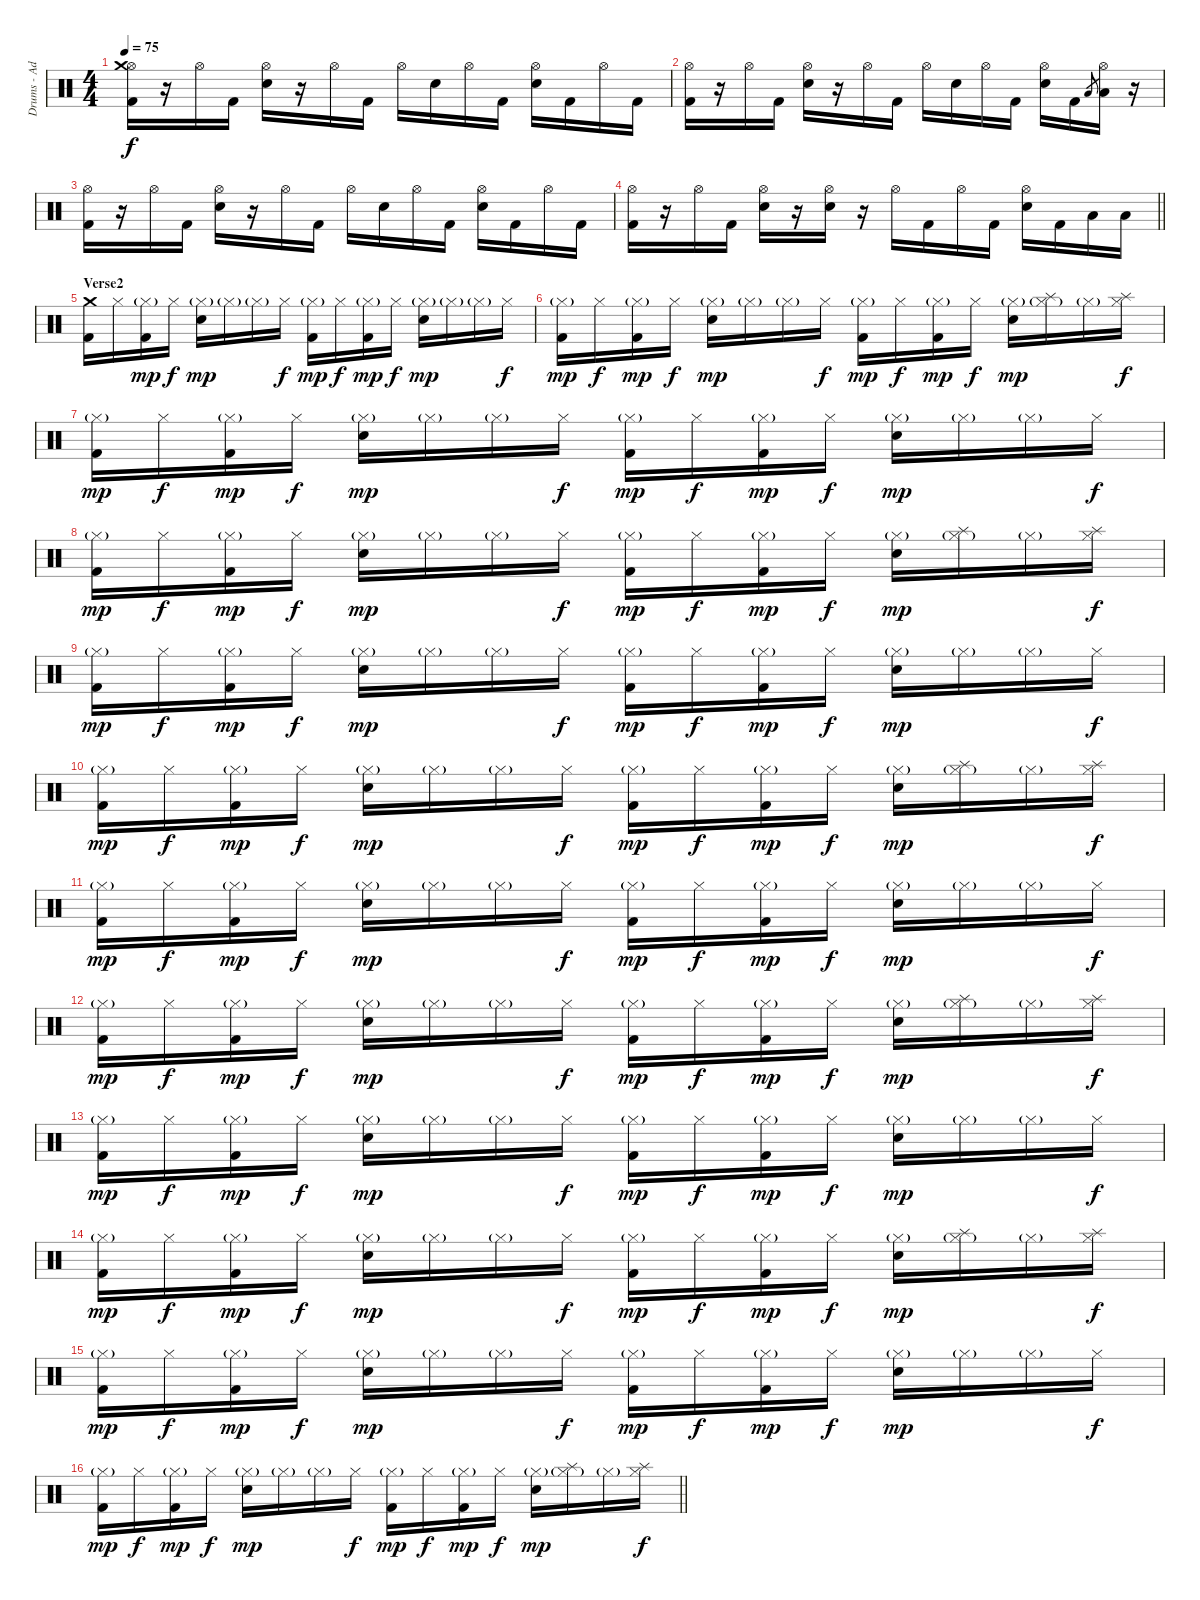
\track ("Drums - Adrian Robinson" "Drums - Ad") {instrument percussion}
\staff {score}
\articulation defaults
\ts (4 4)
\tempo 75
\clef neutral
\ks c
("Hi-Hat (open)" "Crash medium (hit)" "Kick (hit) 2").16{dy f} r.16 "Hi-Hat (open)".16 "Kick (hit) 2".16 ("Hi-Hat (open)" "Electric Snare (hit)").16 r.16 "Hi-Hat (open)".16 "Kick (hit) 2".16 "Hi-Hat (open)".16 "Electric Snare (hit)".16 "Hi-Hat (open)".16 "Kick (hit) 2".16 ("Hi-Hat (open)" "Electric Snare (hit)").16 "Kick (hit) 2".16 "Hi-Hat (open)".16 "Kick (hit) 2".16 |
("Hi-Hat (open)" "Kick (hit) 2").16 r.16 "Hi-Hat (open)".16 "Kick (hit) 2".16 ("Hi-Hat (open)" "Electric Snare (hit)").16 r.16 "Hi-Hat (open)".16 "Kick (hit) 2".16 "Hi-Hat (open)".16 "Electric Snare (hit)".16 "Hi-Hat (open)".16 "Kick (hit) 2".16 ("Hi-Hat (open)" "Electric Snare (hit)").16 "Kick (hit) 2".16 "Low Floor Tom (hit)".8{gr} ("Hi-Hat (open)" "Low Floor Tom (hit)").16 r.16 |
("Hi-Hat (open)" "Kick (hit) 2").16 r.16 "Hi-Hat (open)".16 "Kick (hit) 2".16 ("Hi-Hat (open)" "Electric Snare (hit)").16 r.16 "Hi-Hat (open)".16 "Kick (hit) 2".16 "Hi-Hat (open)".16 "Electric Snare (hit)".16 "Hi-Hat (open)".16 "Kick (hit) 2".16 ("Hi-Hat (open)" "Electric Snare (hit)").16 "Kick (hit) 2".16 "Hi-Hat (open)".16 "Kick (hit) 2".16 |
\barLineRight lightlight
("Hi-Hat (open)" "Kick (hit) 2").16 r.16 "Hi-Hat (open)".16 "Kick (hit) 2".16 ("Hi-Hat (open)" "Electric Snare (hit)").16 r.16 ("Hi-Hat (open)" "Electric Snare (hit)").16 r.16 "Hi-Hat (open)".16 "Kick (hit) 2".16 "Hi-Hat (open)".16 "Kick (hit) 2".16 ("Hi-Hat (open)" "Electric Snare (hit)").16 "Kick (hit) 2".16 "Low Floor Tom (hit)".16 "Low Floor Tom (hit)".16 |
\section ("" "Verse2")
("Crash medium (hit)" "Kick (hit) 2").16 "Hi-Hat (closed)".16 ("Hi-Hat (closed)"{g} "Kick (hit) 2").16{dy mp} "Hi-Hat (closed)".16{dy f} ("Hi-Hat (closed)"{g} "Electric Snare (hit)").16{dy mp} "Hi-Hat (closed)"{g}.16 "Hi-Hat (closed)"{g}.16 "Hi-Hat (closed)".16{dy f} ("Hi-Hat (closed)"{g} "Kick (hit) 2").16{dy mp} "Hi-Hat (closed)".16{dy f} ("Hi-Hat (closed)"{g} "Kick (hit) 2").16{dy mp} "Hi-Hat (closed)".16{dy f} ("Hi-Hat (closed)"{g} "Electric Snare (hit)").16{dy mp} "Hi-Hat (closed)"{g}.16 "Hi-Hat (closed)"{g}.16 "Hi-Hat (closed)".16{dy f} |
("Hi-Hat (closed)"{g} "Kick (hit) 2").16{dy mp} "Hi-Hat (closed)".16{dy f} ("Hi-Hat (closed)"{g} "Kick (hit) 2").16{dy mp} "Hi-Hat (closed)".16{dy f} ("Hi-Hat (closed)"{g} "Electric Snare (hit)").16{dy mp} "Hi-Hat (closed)"{g}.16 "Hi-Hat (closed)"{g}.16 "Hi-Hat (closed)".16{dy f} ("Hi-Hat (closed)"{g} "Kick (hit) 2").16{dy mp} "Hi-Hat (closed)".16{dy f} ("Hi-Hat (closed)"{g} "Kick (hit) 2").16{dy mp} "Hi-Hat (closed)".16{dy f} ("Hi-Hat (closed)"{g} "Electric Snare (hit)").16{dy mp} ("Hi-Hat (closed)"{g} "Splash (hit)").16 "Hi-Hat (closed)"{g}.16 ("Hi-Hat (closed)" "Splash (hit)").16{dy f} |
("Hi-Hat (closed)"{g} "Kick (hit) 2").16{dy mp} "Hi-Hat (closed)".16{dy f} ("Hi-Hat (closed)"{g} "Kick (hit) 2").16{dy mp} "Hi-Hat (closed)".16{dy f} ("Hi-Hat (closed)"{g} "Electric Snare (hit)").16{dy mp} "Hi-Hat (closed)"{g}.16 "Hi-Hat (closed)"{g}.16 "Hi-Hat (closed)".16{dy f} ("Hi-Hat (closed)"{g} "Kick (hit) 2").16{dy mp} "Hi-Hat (closed)".16{dy f} ("Hi-Hat (closed)"{g} "Kick (hit) 2").16{dy mp} "Hi-Hat (closed)".16{dy f} ("Hi-Hat (closed)"{g} "Electric Snare (hit)").16{dy mp} "Hi-Hat (closed)"{g}.16 "Hi-Hat (closed)"{g}.16 "Hi-Hat (closed)".16{dy f} |
("Hi-Hat (closed)"{g} "Kick (hit) 2").16{dy mp} "Hi-Hat (closed)".16{dy f} ("Hi-Hat (closed)"{g} "Kick (hit) 2").16{dy mp} "Hi-Hat (closed)".16{dy f} ("Hi-Hat (closed)"{g} "Electric Snare (hit)").16{dy mp} "Hi-Hat (closed)"{g}.16 "Hi-Hat (closed)"{g}.16 "Hi-Hat (closed)".16{dy f} ("Hi-Hat (closed)"{g} "Kick (hit) 2").16{dy mp} "Hi-Hat (closed)".16{dy f} ("Hi-Hat (closed)"{g} "Kick (hit) 2").16{dy mp} "Hi-Hat (closed)".16{dy f} ("Hi-Hat (closed)"{g} "Electric Snare (hit)").16{dy mp} ("Hi-Hat (closed)"{g} "Splash (hit)").16 "Hi-Hat (closed)"{g}.16 ("Hi-Hat (closed)" "Splash (hit)").16{dy f} |
("Hi-Hat (closed)"{g} "Kick (hit) 2").16{dy mp} "Hi-Hat (closed)".16{dy f} ("Hi-Hat (closed)"{g} "Kick (hit) 2").16{dy mp} "Hi-Hat (closed)".16{dy f} ("Hi-Hat (closed)"{g} "Electric Snare (hit)").16{dy mp} "Hi-Hat (closed)"{g}.16 "Hi-Hat (closed)"{g}.16 "Hi-Hat (closed)".16{dy f} ("Hi-Hat (closed)"{g} "Kick (hit) 2").16{dy mp} "Hi-Hat (closed)".16{dy f} ("Hi-Hat (closed)"{g} "Kick (hit) 2").16{dy mp} "Hi-Hat (closed)".16{dy f} ("Hi-Hat (closed)"{g} "Electric Snare (hit)").16{dy mp} "Hi-Hat (closed)"{g}.16 "Hi-Hat (closed)"{g}.16 "Hi-Hat (closed)".16{dy f} |
("Hi-Hat (closed)"{g} "Kick (hit) 2").16{dy mp} "Hi-Hat (closed)".16{dy f} ("Hi-Hat (closed)"{g} "Kick (hit) 2").16{dy mp} "Hi-Hat (closed)".16{dy f} ("Hi-Hat (closed)"{g} "Electric Snare (hit)").16{dy mp} "Hi-Hat (closed)"{g}.16 "Hi-Hat (closed)"{g}.16 "Hi-Hat (closed)".16{dy f} ("Hi-Hat (closed)"{g} "Kick (hit) 2").16{dy mp} "Hi-Hat (closed)".16{dy f} ("Hi-Hat (closed)"{g} "Kick (hit) 2").16{dy mp} "Hi-Hat (closed)".16{dy f} ("Hi-Hat (closed)"{g} "Electric Snare (hit)").16{dy mp} ("Hi-Hat (closed)"{g} "Splash (hit)").16 "Hi-Hat (closed)"{g}.16 ("Hi-Hat (closed)" "Splash (hit)").16{dy f} |
("Hi-Hat (closed)"{g} "Kick (hit) 2").16{dy mp} "Hi-Hat (closed)".16{dy f} ("Hi-Hat (closed)"{g} "Kick (hit) 2").16{dy mp} "Hi-Hat (closed)".16{dy f} ("Hi-Hat (closed)"{g} "Electric Snare (hit)").16{dy mp} "Hi-Hat (closed)"{g}.16 "Hi-Hat (closed)"{g}.16 "Hi-Hat (closed)".16{dy f} ("Hi-Hat (closed)"{g} "Kick (hit) 2").16{dy mp} "Hi-Hat (closed)".16{dy f} ("Hi-Hat (closed)"{g} "Kick (hit) 2").16{dy mp} "Hi-Hat (closed)".16{dy f} ("Hi-Hat (closed)"{g} "Electric Snare (hit)").16{dy mp} "Hi-Hat (closed)"{g}.16 "Hi-Hat (closed)"{g}.16 "Hi-Hat (closed)".16{dy f} |
("Hi-Hat (closed)"{g} "Kick (hit) 2").16{dy mp} "Hi-Hat (closed)".16{dy f} ("Hi-Hat (closed)"{g} "Kick (hit) 2").16{dy mp} "Hi-Hat (closed)".16{dy f} ("Hi-Hat (closed)"{g} "Electric Snare (hit)").16{dy mp} "Hi-Hat (closed)"{g}.16 "Hi-Hat (closed)"{g}.16 "Hi-Hat (closed)".16{dy f} ("Hi-Hat (closed)"{g} "Kick (hit) 2").16{dy mp} "Hi-Hat (closed)".16{dy f} ("Hi-Hat (closed)"{g} "Kick (hit) 2").16{dy mp} "Hi-Hat (closed)".16{dy f} ("Hi-Hat (closed)"{g} "Electric Snare (hit)").16{dy mp} ("Hi-Hat (closed)"{g} "Splash (hit)").16 "Hi-Hat (closed)"{g}.16 ("Hi-Hat (closed)" "Splash (hit)").16{dy f} |
("Hi-Hat (closed)"{g} "Kick (hit) 2").16{dy mp} "Hi-Hat (closed)".16{dy f} ("Hi-Hat (closed)"{g} "Kick (hit) 2").16{dy mp} "Hi-Hat (closed)".16{dy f} ("Hi-Hat (closed)"{g} "Electric Snare (hit)").16{dy mp} "Hi-Hat (closed)"{g}.16 "Hi-Hat (closed)"{g}.16 "Hi-Hat (closed)".16{dy f} ("Hi-Hat (closed)"{g} "Kick (hit) 2").16{dy mp} "Hi-Hat (closed)".16{dy f} ("Hi-Hat (closed)"{g} "Kick (hit) 2").16{dy mp} "Hi-Hat (closed)".16{dy f} ("Hi-Hat (closed)"{g} "Electric Snare (hit)").16{dy mp} "Hi-Hat (closed)"{g}.16 "Hi-Hat (closed)"{g}.16 "Hi-Hat (closed)".16{dy f} |
("Hi-Hat (closed)"{g} "Kick (hit) 2").16{dy mp} "Hi-Hat (closed)".16{dy f} ("Hi-Hat (closed)"{g} "Kick (hit) 2").16{dy mp} "Hi-Hat (closed)".16{dy f} ("Hi-Hat (closed)"{g} "Electric Snare (hit)").16{dy mp} "Hi-Hat (closed)"{g}.16 "Hi-Hat (closed)"{g}.16 "Hi-Hat (closed)".16{dy f} ("Hi-Hat (closed)"{g} "Kick (hit) 2").16{dy mp} "Hi-Hat (closed)".16{dy f} ("Hi-Hat (closed)"{g} "Kick (hit) 2").16{dy mp} "Hi-Hat (closed)".16{dy f} ("Hi-Hat (closed)"{g} "Electric Snare (hit)").16{dy mp} ("Hi-Hat (closed)"{g} "Splash (hit)").16 "Hi-Hat (closed)"{g}.16 ("Hi-Hat (closed)" "Splash (hit)").16{dy f} |
("Hi-Hat (closed)"{g} "Kick (hit) 2").16{dy mp} "Hi-Hat (closed)".16{dy f} ("Hi-Hat (closed)"{g} "Kick (hit) 2").16{dy mp} "Hi-Hat (closed)".16{dy f} ("Hi-Hat (closed)"{g} "Electric Snare (hit)").16{dy mp} "Hi-Hat (closed)"{g}.16 "Hi-Hat (closed)"{g}.16 "Hi-Hat (closed)".16{dy f} ("Hi-Hat (closed)"{g} "Kick (hit) 2").16{dy mp} "Hi-Hat (closed)".16{dy f} ("Hi-Hat (closed)"{g} "Kick (hit) 2").16{dy mp} "Hi-Hat (closed)".16{dy f} ("Hi-Hat (closed)"{g} "Electric Snare (hit)").16{dy mp} "Hi-Hat (closed)"{g}.16 "Hi-Hat (closed)"{g}.16 "Hi-Hat (closed)".16{dy f} |
\barLineRight lightlight
("Hi-Hat (closed)"{g} "Kick (hit) 2").16{dy mp} "Hi-Hat (closed)".16{dy f} ("Hi-Hat (closed)"{g} "Kick (hit) 2").16{dy mp} "Hi-Hat (closed)".16{dy f} ("Hi-Hat (closed)"{g} "Electric Snare (hit)").16{dy mp} "Hi-Hat (closed)"{g}.16 "Hi-Hat (closed)"{g}.16 "Hi-Hat (closed)".16{dy f} ("Hi-Hat (closed)"{g} "Kick (hit) 2").16{dy mp} "Hi-Hat (closed)".16{dy f} ("Hi-Hat (closed)"{g} "Kick (hit) 2").16{dy mp} "Hi-Hat (closed)".16{dy f} ("Hi-Hat (closed)"{g} "Electric Snare (hit)").16{dy mp} ("Hi-Hat (closed)"{g} "Splash (hit)").16 "Hi-Hat (closed)"{g}.16 ("Hi-Hat (closed)" "Splash (hit)").16{dy f}
